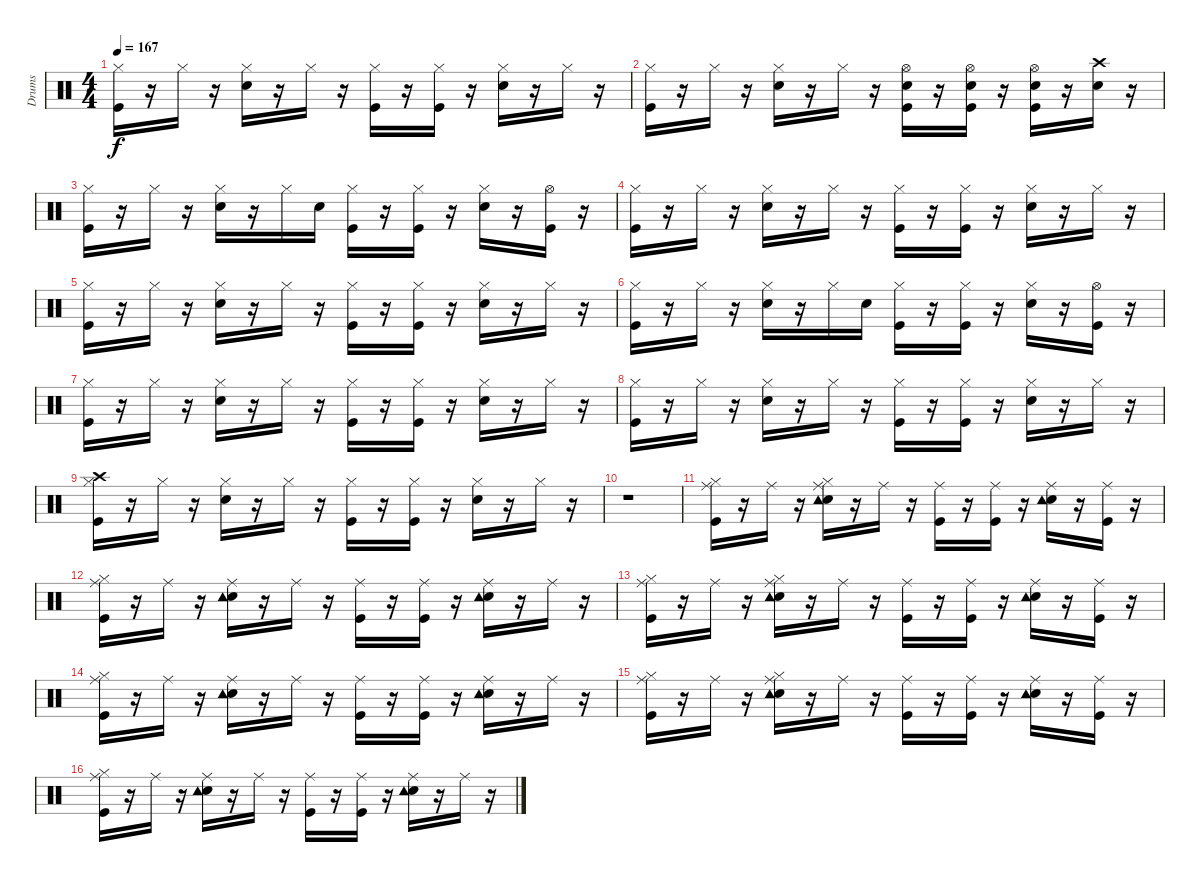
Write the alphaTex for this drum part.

\track ("Drums" "Drums") {instrument percussion}
\staff {score}
\articulation defaults
\ts (4 4)
\tempo 167
\clef neutral
\ks c
("Kick (hit)" "Hi-Hat (closed)").16{dy f} r.16 "Hi-Hat (closed)".16 r.16 ("Snare (hit) 2" "Hi-Hat (closed)").16 r.16 "Hi-Hat (closed)".16 r.16 ("Kick (hit)" "Hi-Hat (closed)").16 r.16 ("Kick (hit)" "Hi-Hat (closed)").16 r.16 ("Snare (hit) 2" "Hi-Hat (closed)").16 r.16 "Hi-Hat (closed)".16 r.16 |
("Kick (hit)" "Hi-Hat (closed)").16 r.16 "Hi-Hat (closed)".16 r.16 ("Snare (hit) 2" "Hi-Hat (closed)").16 r.16 "Hi-Hat (closed)".16 r.16 ("Kick (hit)" "Snare (hit) 2" "Hi-Hat (open)").16 r.16 ("Kick (hit)" "Snare (hit) 2" "Hi-Hat (open)").16 r.16 ("Kick (hit)" "Snare (hit) 2" "Hi-Hat (open)").16 r.16 ("Snare (hit) 2" "Crash high (hit)").16 r.16 |
("Kick (hit)" "Hi-Hat (closed)").16 r.16 "Hi-Hat (closed)".16 r.16 ("Snare (hit) 2" "Hi-Hat (closed)").16 r.16 "Hi-Hat (closed)".16 "Snare (hit) 2".16 ("Kick (hit)" "Hi-Hat (closed)").16 r.16 ("Kick (hit)" "Hi-Hat (closed)").16 r.16 ("Snare (hit) 2" "Hi-Hat (closed)").16 r.16 ("Kick (hit)" "Hi-Hat (open)").16 r.16 |
("Kick (hit)" "Hi-Hat (closed)").16 r.16 "Hi-Hat (closed)".16 r.16 ("Snare (hit) 2" "Hi-Hat (closed)").16 r.16 "Hi-Hat (closed)".16 r.16 ("Kick (hit)" "Hi-Hat (closed)").16 r.16 ("Kick (hit)" "Hi-Hat (closed)").16 r.16 ("Snare (hit) 2" "Hi-Hat (closed)").16 r.16 "Hi-Hat (closed)".16 r.16 |
("Kick (hit)" "Hi-Hat (closed)").16 r.16 "Hi-Hat (closed)".16 r.16 ("Snare (hit) 2" "Hi-Hat (closed)").16 r.16 "Hi-Hat (closed)".16 r.16 ("Kick (hit)" "Hi-Hat (closed)").16 r.16 ("Kick (hit)" "Hi-Hat (closed)").16 r.16 ("Snare (hit) 2" "Hi-Hat (closed)").16 r.16 "Hi-Hat (closed)".16 r.16 |
("Kick (hit)" "Hi-Hat (closed)").16 r.16 "Hi-Hat (closed)".16 r.16 ("Snare (hit) 2" "Hi-Hat (closed)").16 r.16 "Hi-Hat (closed)".16 "Snare (hit) 2".16 ("Kick (hit)" "Hi-Hat (closed)").16 r.16 ("Kick (hit)" "Hi-Hat (closed)").16 r.16 ("Snare (hit) 2" "Hi-Hat (closed)").16 r.16 ("Kick (hit)" "Hi-Hat (open)").16 r.16 |
("Kick (hit)" "Hi-Hat (closed)").16 r.16 "Hi-Hat (closed)".16 r.16 ("Snare (hit) 2" "Hi-Hat (closed)").16 r.16 "Hi-Hat (closed)".16 r.16 ("Kick (hit)" "Hi-Hat (closed)").16 r.16 ("Kick (hit)" "Hi-Hat (closed)").16 r.16 ("Snare (hit) 2" "Hi-Hat (closed)").16 r.16 "Hi-Hat (closed)".16 r.16 |
("Kick (hit)" "Hi-Hat (closed)").16 r.16 "Hi-Hat (closed)".16 r.16 ("Snare (hit) 2" "Hi-Hat (closed)").16 r.16 "Hi-Hat (closed)".16 r.16 ("Kick (hit)" "Hi-Hat (closed)").16 r.16 ("Kick (hit)" "Hi-Hat (closed)").16 r.16 ("Snare (hit) 2" "Hi-Hat (closed)").16 r.16 "Hi-Hat (closed)".16 r.16 |
("Kick (hit)" "Hi-Hat (closed)" "Crash high (hit)").16 r.16 "Hi-Hat (closed)".16 r.16 ("Snare (hit) 2" "Hi-Hat (closed)").16 r.16 "Hi-Hat (closed)".16 r.16 ("Kick (hit)" "Hi-Hat (closed)").16 r.16 ("Kick (hit)" "Hi-Hat (closed)").16 r.16 ("Snare (hit) 2" "Hi-Hat (closed)").16 r.16 "Hi-Hat (closed)".16 r.16 |
r.1 |
("Kick (hit)" "Hi-Hat (closed)" "Ride (middle)").16 r.16 "Ride (middle)".16 r.16 ("Snare (hit) 2" "Hi-Hat (closed)" "Ride (middle)" "Tambourine (hit)").16 r.16 "Ride (middle)".16 r.16 ("Kick (hit)" "Ride (middle)").16 r.16 ("Kick (hit)" "Ride (middle)").16 r.16 ("Snare (hit) 2" "Ride (middle)" "Tambourine (hit)").16 r.16 ("Kick (hit)" "Ride (middle)").16 r.16 |
("Kick (hit)" "Hi-Hat (closed)" "Ride (middle)").16 r.16 "Ride (middle)".16 r.16 ("Snare (hit) 2" "Ride (middle)" "Tambourine (hit)").16 r.16 "Ride (middle)".16 r.16 ("Kick (hit)" "Ride (middle)").16 r.16 ("Kick (hit)" "Ride (middle)").16 r.16 ("Snare (hit) 2" "Ride (middle)" "Tambourine (hit)").16 r.16 "Ride (middle)".16 r.16 |
("Kick (hit)" "Hi-Hat (closed)" "Ride (middle)").16 r.16 "Ride (middle)".16 r.16 ("Snare (hit) 2" "Hi-Hat (closed)" "Ride (middle)" "Tambourine (hit)").16 r.16 "Ride (middle)".16 r.16 ("Kick (hit)" "Ride (middle)").16 r.16 ("Kick (hit)" "Ride (middle)").16 r.16 ("Snare (hit) 2" "Ride (middle)" "Tambourine (hit)").16 r.16 ("Kick (hit)" "Ride (middle)").16 r.16 |
("Kick (hit)" "Hi-Hat (closed)" "Ride (middle)").16 r.16 "Ride (middle)".16 r.16 ("Snare (hit) 2" "Ride (middle)" "Tambourine (hit)").16 r.16 "Ride (middle)".16 r.16 ("Kick (hit)" "Ride (middle)").16 r.16 ("Kick (hit)" "Ride (middle)").16 r.16 ("Snare (hit) 2" "Ride (middle)" "Tambourine (hit)").16 r.16 "Ride (middle)".16 r.16 |
("Kick (hit)" "Hi-Hat (closed)" "Ride (middle)").16 r.16 "Ride (middle)".16 r.16 ("Snare (hit) 2" "Hi-Hat (closed)" "Ride (middle)" "Tambourine (hit)").16 r.16 "Ride (middle)".16 r.16 ("Kick (hit)" "Ride (middle)").16 r.16 ("Kick (hit)" "Ride (middle)").16 r.16 ("Snare (hit) 2" "Ride (middle)" "Tambourine (hit)").16 r.16 ("Kick (hit)" "Ride (middle)").16 r.16 |
("Kick (hit)" "Hi-Hat (closed)" "Ride (middle)").16 r.16 "Ride (middle)".16 r.16 ("Snare (hit) 2" "Ride (middle)" "Tambourine (hit)").16 r.16 "Ride (middle)".16 r.16 ("Kick (hit)" "Ride (middle)").16 r.16 ("Kick (hit)" "Ride (middle)").16 r.16 ("Snare (hit) 2" "Ride (middle)" "Tambourine (hit)").16 r.16 "Ride (middle)".16 r.16
